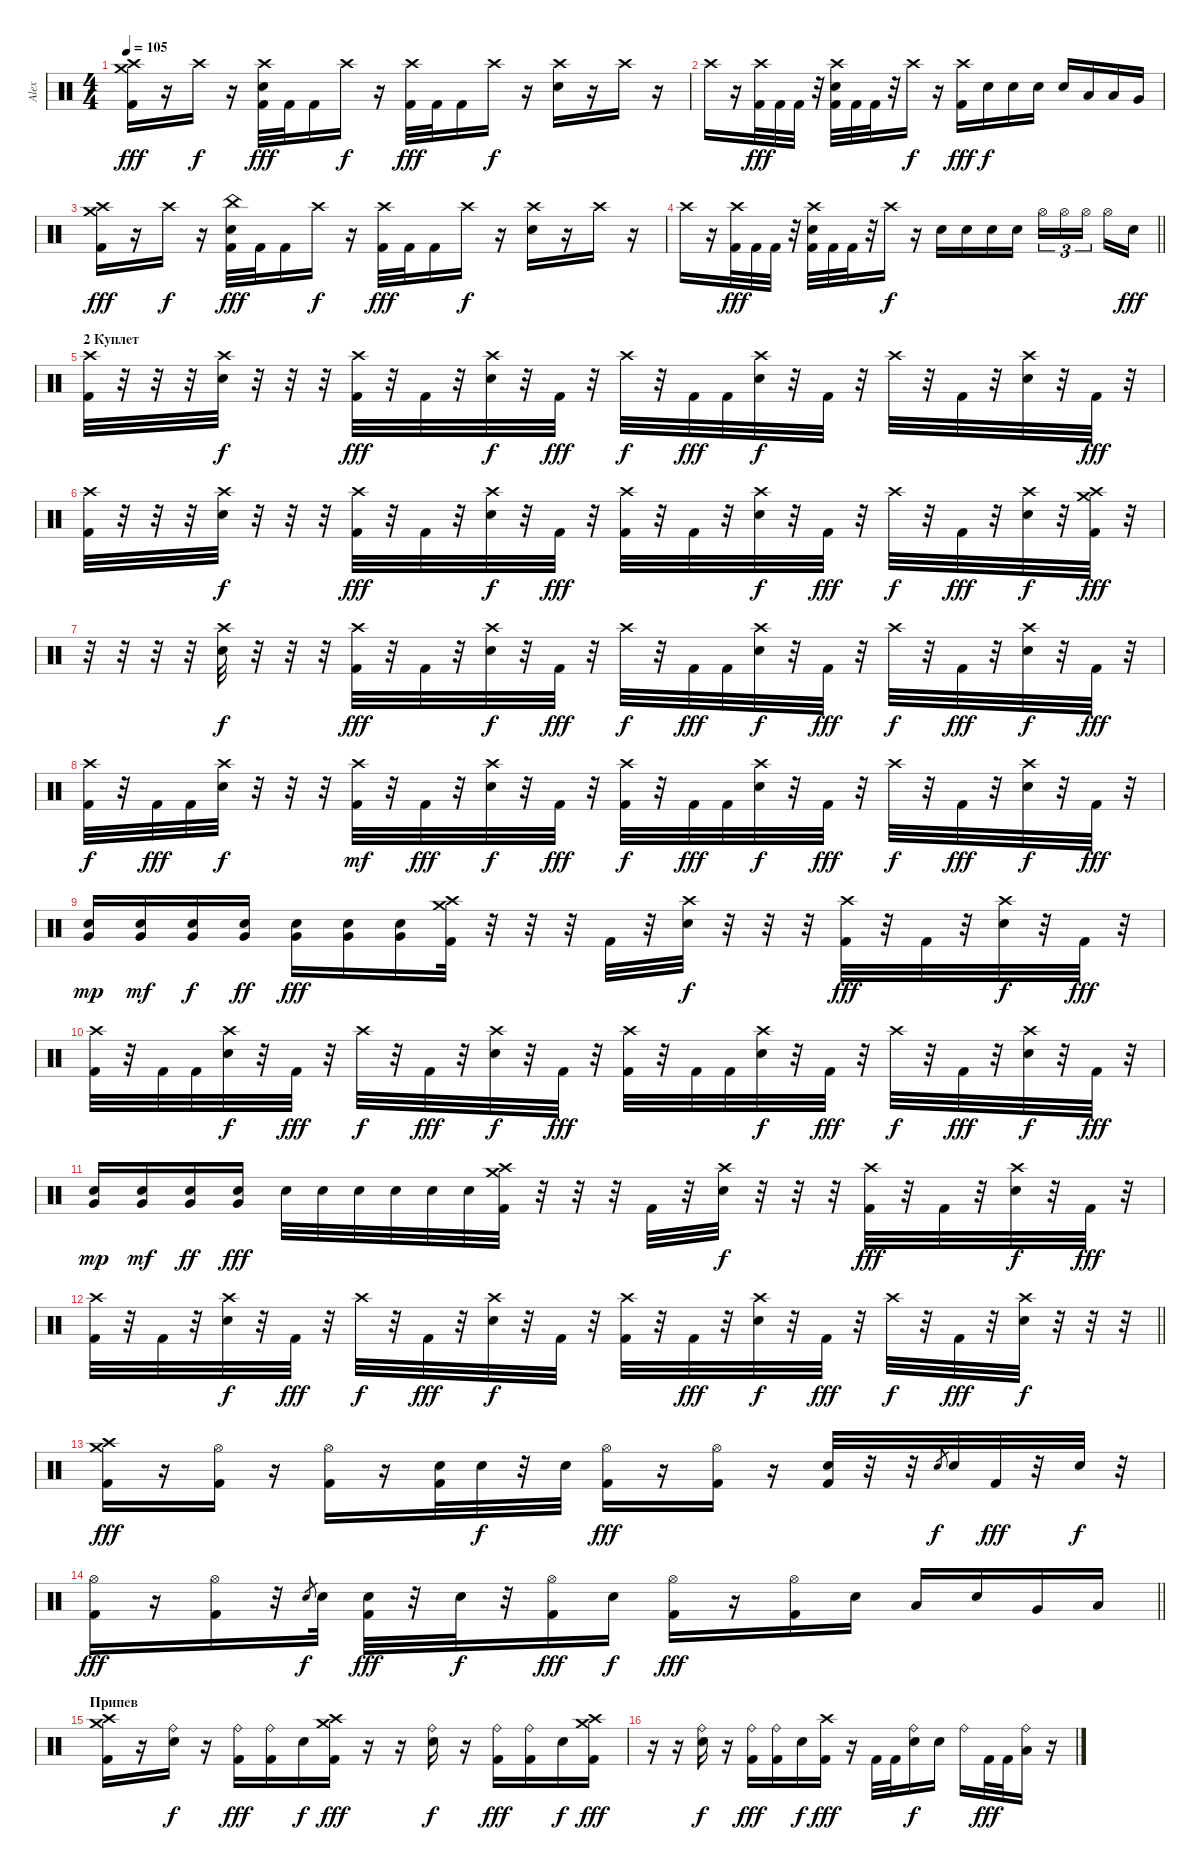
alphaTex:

\track ("Alex" "Alex") {instrument percussion}
\staff {score}
\articulation defaults
\ts (4 4)
\tempo 105
\clef neutral
\ks c
("Crash high (hit)" "Crash medium (hit)" "Kick (hit) 2").16{dy fff} r.16 "Crash high (hit)".16{dy f} r.16 ("Crash high (hit)" "Electric Snare (hit)" "Kick (hit) 2").32{dy fff} "Kick (hit) 2".32 "Kick (hit) 2".16 "Crash high (hit)".16{dy f} r.16 ("Crash high (hit)" "Kick (hit) 2").32{dy fff} "Kick (hit) 2".32 "Kick (hit) 2".16 "Crash high (hit)".16{dy f} r.16 ("Crash high (hit)" "Electric Snare (hit)").16 r.16 "Crash high (hit)".16 r.16 |
"Crash high (hit)".16 r.16 ("Crash high (hit)" "Kick (hit) 2").32{dy fff} "Kick (hit) 2".32 "Kick (hit) 2".32 r.32 ("Crash high (hit)" "Electric Snare (hit)" "Kick (hit) 2").32 "Kick (hit) 2".32 "Kick (hit) 2".32 r.32 "Crash high (hit)".16{dy f} r.16 ("Crash high (hit)" "Kick (hit) 2").16{dy fff} "Electric Snare (hit)".16{dy f} "Electric Snare (hit)".16 "Electric Snare (hit)".16 "Electric Snare (hit)".16 "Low Tom (hit)".16 "Low Tom (hit)".16 "Very Low Tom (hit)".16 |
("Crash high (hit)" "Crash medium (hit)" "Kick (hit) 2").16{dy fff} r.16 "Crash high (hit)".16{dy f} r.16 ("China (hit)" "Electric Snare (hit)" "Kick (hit) 2").32{dy fff} "Kick (hit) 2".32 "Kick (hit) 2".16 "Crash high (hit)".16{dy f} r.16 ("Crash high (hit)" "Kick (hit) 2").32{dy fff} "Kick (hit) 2".32 "Kick (hit) 2".16 "Crash high (hit)".16{dy f} r.16 ("Crash high (hit)" "Electric Snare (hit)").16 r.16 "Crash high (hit)".16 r.16 |
\barLineRight lightlight "Crash high (hit)".16
r.16 ("Crash high (hit)" "Kick (hit) 2").32{dy fff} "Kick (hit) 2".32 "Kick (hit) 2".32 r.32 ("Crash high (hit)" "Electric Snare (hit)" "Kick (hit) 2").32 "Kick (hit) 2".32 "Kick (hit) 2".32 r.32 "Crash high (hit)".16{dy f} r.16 "Electric Snare (hit)".16 "Electric Snare (hit)".16 "Electric Snare (hit)".16 "Electric Snare (hit)".16 "Hi-Hat (open)".16{tu (3 2)} "Hi-Hat (open)".16{tu (3 2)} "Hi-Hat (open)".16{tu (3 2) beam splitsecondary} "Hi-Hat (open)".16 "Electric Snare (hit)".16{dy fff} |
\section ("" "2 Куплет")
("Crash high (hit)" "Kick (hit) 2").32 r.32 r.32 r.32 ("Crash high (hit)" "Electric Snare (hit)").32{dy f} r.32 r.32 r.32 ("Crash high (hit)" "Kick (hit) 2").32{dy fff} r.32 "Kick (hit) 2".32 r.32 ("Crash high (hit)" "Electric Snare (hit)").32{dy f} r.32 "Kick (hit) 2".32{dy fff} r.32 "Crash high (hit)".32{dy f} r.32 "Kick (hit) 2".32{dy fff} "Kick (hit) 2".32 ("Crash high (hit)" "Electric Snare (hit)").32{dy f} r.32 "Kick (hit) 2".32 r.32 "Crash high (hit)".32 r.32 "Kick (hit) 2".32 r.32 ("Crash high (hit)" "Electric Snare (hit)").32 r.32 "Kick (hit) 2".32{dy fff} r.32 |
("Crash high (hit)" "Kick (hit) 2").32 r.32 r.32 r.32 ("Crash high (hit)" "Electric Snare (hit)").32{dy f} r.32 r.32 r.32 ("Crash high (hit)" "Kick (hit) 2").32{dy fff} r.32 "Kick (hit) 2".32 r.32 ("Crash high (hit)" "Electric Snare (hit)").32{dy f} r.32 "Kick (hit) 2".32{dy fff} r.32 ("Crash high (hit)" "Kick (hit) 2").32 r.32 "Kick (hit) 2".32 r.32 ("Crash high (hit)" "Electric Snare (hit)").32{dy f} r.32 "Kick (hit) 2".32{dy fff} r.32 "Crash high (hit)".32{dy f} r.32 "Kick (hit) 2".32{dy fff} r.32 ("Crash high (hit)" "Electric Snare (hit)").32{dy f} r.32 ("Crash high (hit)" "Crash medium (hit)" "Kick (hit) 2").32{dy fff} r.32 |
r.32 r.32 r.32 r.32 ("Crash high (hit)" "Electric Snare (hit)").32{dy f} r.32 r.32 r.32 ("Crash high (hit)" "Kick (hit) 2").32{dy fff} r.32 "Kick (hit) 2".32 r.32 ("Crash high (hit)" "Electric Snare (hit)").32{dy f} r.32 "Kick (hit) 2".32{dy fff} r.32 "Crash high (hit)".32{dy f} r.32 "Kick (hit) 2".32{dy fff} "Kick (hit) 2".32 ("Crash high (hit)" "Electric Snare (hit)").32{dy f} r.32 "Kick (hit) 2".32{dy fff} r.32 "Crash high (hit)".32{dy f} r.32 "Kick (hit) 2".32{dy fff} r.32 ("Crash high (hit)" "Electric Snare (hit)").32{dy f} r.32 "Kick (hit) 2".32{dy fff} r.32 |
("Crash high (hit)" "Kick (hit) 2").32{dy f} r.32 "Kick (hit) 2".32{dy fff} "Kick (hit) 2".32 ("Crash high (hit)" "Electric Snare (hit)").32{dy f} r.32 r.32 r.32 ("Crash high (hit)" "Kick (hit) 2").32{dy mf} r.32 "Kick (hit) 2".32{dy fff} r.32 ("Crash high (hit)" "Electric Snare (hit)").32{dy f} r.32 "Kick (hit) 2".32{dy fff} r.32 ("Crash high (hit)" "Kick (hit) 2").32{dy f} r.32 "Kick (hit) 2".32{dy fff} "Kick (hit) 2".32 ("Crash high (hit)" "Electric Snare (hit)").32{dy f} r.32 "Kick (hit) 2".32{dy fff} r.32 "Crash high (hit)".32{dy f} r.32 "Kick (hit) 2".32{dy fff} r.32 ("Crash high (hit)" "Electric Snare (hit)").32{dy f} r.32 "Kick (hit) 2".32{dy fff} r.32 |
("Very Low Tom (hit)" "Electric Snare (hit)").16{dy mp} ("Very Low Tom (hit)" "Electric Snare (hit)").16{dy mf} ("Very Low Tom (hit)" "Electric Snare (hit)").16{dy f} ("Very Low Tom (hit)" "Electric Snare (hit)").16{dy ff} ("Very Low Tom (hit)" "Electric Snare (hit)").16{dy fff} ("Very Low Tom (hit)" "Electric Snare (hit)").16 ("Very Low Tom (hit)" "Electric Snare (hit)").16 ("Crash medium (hit)" "Crash high (hit)" "Kick (hit) 2").32 r.32 r.32 r.32 "Kick (hit) 2".32 r.32 ("Crash high (hit)" "Electric Snare (hit)").32{dy f} r.32 r.32 r.32 ("Crash high (hit)" "Kick (hit) 2").32{dy fff} r.32 "Kick (hit) 2".32 r.32 ("Crash high (hit)" "Electric Snare (hit)").32{dy f} r.32 "Kick (hit) 2".32{dy fff} r.32 |
("Crash high (hit)" "Kick (hit) 2").32 r.32 "Kick (hit) 2".32 "Kick (hit) 2".32 ("Crash high (hit)" "Electric Snare (hit)").32{dy f} r.32 "Kick (hit) 2".32{dy fff} r.32 "Crash high (hit)".32{dy f} r.32 "Kick (hit) 2".32{dy fff} r.32 ("Crash high (hit)" "Electric Snare (hit)").32{dy f} r.32 "Kick (hit) 2".32{dy fff} r.32 ("Crash high (hit)" "Kick (hit) 2").32 r.32 "Kick (hit) 2".32 "Kick (hit) 2".32 ("Crash high (hit)" "Electric Snare (hit)").32{dy f} r.32 "Kick (hit) 2".32{dy fff} r.32 "Crash high (hit)".32{dy f} r.32 "Kick (hit) 2".32{dy fff} r.32 ("Crash high (hit)" "Electric Snare (hit)").32{dy f} r.32 "Kick (hit) 2".32{dy fff} r.32 |
("Very Low Tom (hit)" "Electric Snare (hit)").16{dy mp} ("Very Low Tom (hit)" "Electric Snare (hit)").16{dy mf} ("Very Low Tom (hit)" "Electric Snare (hit)").16{dy ff} ("Very Low Tom (hit)" "Electric Snare (hit)").16{dy fff} "Electric Snare (hit)".32 "Electric Snare (hit)".32 "Electric Snare (hit)".32 "Electric Snare (hit)".32 "Electric Snare (hit)".32 "Electric Snare (hit)".32 ("Crash medium (hit)" "Crash high (hit)" "Kick (hit) 2").32 r.32 r.32 r.32 "Kick (hit) 2".32 r.32 ("Crash high (hit)" "Electric Snare (hit)").32{dy f} r.32 r.32 r.32 ("Crash high (hit)" "Kick (hit) 2").32{dy fff} r.32 "Kick (hit) 2".32 r.32 ("Crash high (hit)" "Electric Snare (hit)").32{dy f} r.32 "Kick (hit) 2".32{dy fff} r.32 |
\barLineRight lightlight
("Crash high (hit)" "Kick (hit) 2").32 r.32 "Kick (hit) 2".32 r.32 ("Crash high (hit)" "Electric Snare (hit)").32{dy f} r.32 "Kick (hit) 2".32{dy fff} r.32 "Crash high (hit)".32{dy f} r.32 "Kick (hit) 2".32{dy fff} r.32 ("Crash high (hit)" "Electric Snare (hit)").32{dy f} r.32 "Kick (hit) 2".32 r.32 ("Crash high (hit)" "Kick (hit) 2").32 r.32 "Kick (hit) 2".32{dy fff} r.32 ("Crash high (hit)" "Electric Snare (hit)").32{dy f} r.32 "Kick (hit) 2".32{dy fff} r.32 "Crash high (hit)".32{dy f} r.32 "Kick (hit) 2".32{dy fff} r.32 ("Crash high (hit)" "Electric Snare (hit)").32{dy f} r.32 r.32 r.32 |
\section ("" "")
("Crash high (hit)" "Crash medium (hit)" "Kick (hit) 2").16{dy fff} r.16 ("Hi-Hat (open)" "Kick (hit) 2").16 r.16 ("Hi-Hat (open)" "Kick (hit) 2").16 r.16 ("Electric Snare (hit)" "Kick (hit) 2").32 "Electric Snare (hit)".32{dy f} r.32 "Electric Snare (hit)".32 ("Hi-Hat (open)" "Kick (hit) 2").16{dy fff} r.16 ("Hi-Hat (open)" "Kick (hit) 2").16 r.16 ("Electric Snare (hit)" "Kick (hit) 2").32 r.32 r.32 "Electric Snare (hit)".8{gr dy f} "Electric Snare (hit)".32 "Kick (hit) 2".32{dy fff} r.32 "Electric Snare (hit)".32{dy f} r.32 |
\barLineRight lightlight
("Hi-Hat (open)" "Kick (hit) 2").16{dy fff} r.16 ("Hi-Hat (open)" "Kick (hit) 2").16 r.32 "Electric Snare (hit)".8{gr dy f} "Electric Snare (hit)".32 ("Electric Snare (hit)" "Kick (hit) 2").32{dy fff} r.32 "Electric Snare (hit)".32{dy f} r.32 ("Hi-Hat (open)" "Kick (hit) 2").16{dy fff} "Electric Snare (hit)".16{dy f} ("Hi-Hat (open)" "Kick (hit) 2").16{dy fff} r.16 ("Hi-Hat (open)" "Kick (hit) 2").16 "Electric Snare (hit)".16 "Low Tom (hit)".16 "Electric Snare (hit)".16 "Very Low Tom (hit)".16 "Low Floor Tom (hit)".16 |
\section ("" "Припев")
("Crash high (hit)" "Crash medium (hit)" "Kick (hit) 2").16 r.16 ("Ride (bell)" "Electric Snare (hit)").16{dy f} r.16 ("Ride (bell)" "Kick (hit) 2").16{dy fff} ("Ride (bell)" "Kick (hit) 2").16 "Electric Snare (hit)".16{dy f} ("Crash high (hit)" "Crash medium (hit)" "Kick (hit) 2").16{dy fff} r.16 r.16 ("Ride (bell)" "Electric Snare (hit)").16{dy f} r.16 ("Ride (bell)" "Kick (hit) 2").16{dy fff} ("Ride (bell)" "Kick (hit) 2").16 "Electric Snare (hit)".16{dy f} ("Crash high (hit)" "Crash medium (hit)" "Kick (hit) 2").16{dy fff} |
r.16 r.16 ("Ride (bell)" "Electric Snare (hit)").16{dy f} r.16 ("Ride (bell)" "Kick (hit) 2").16{dy fff} ("Ride (bell)" "Kick (hit) 2").16 "Electric Snare (hit)".16{dy f} ("Crash high (hit)" "Kick (hit) 2").16{dy fff} r.16 "Kick (hit) 2".32 "Kick (hit) 2".32 ("Ride (bell)" "Electric Snare (hit)").16{dy f} "Electric Snare (hit)".16 "Ride (bell)".16 "Kick (hit) 2".32{dy fff} "Kick (hit) 2".32 ("Ride (bell)" "Low Tom (hit)").16 r.16
